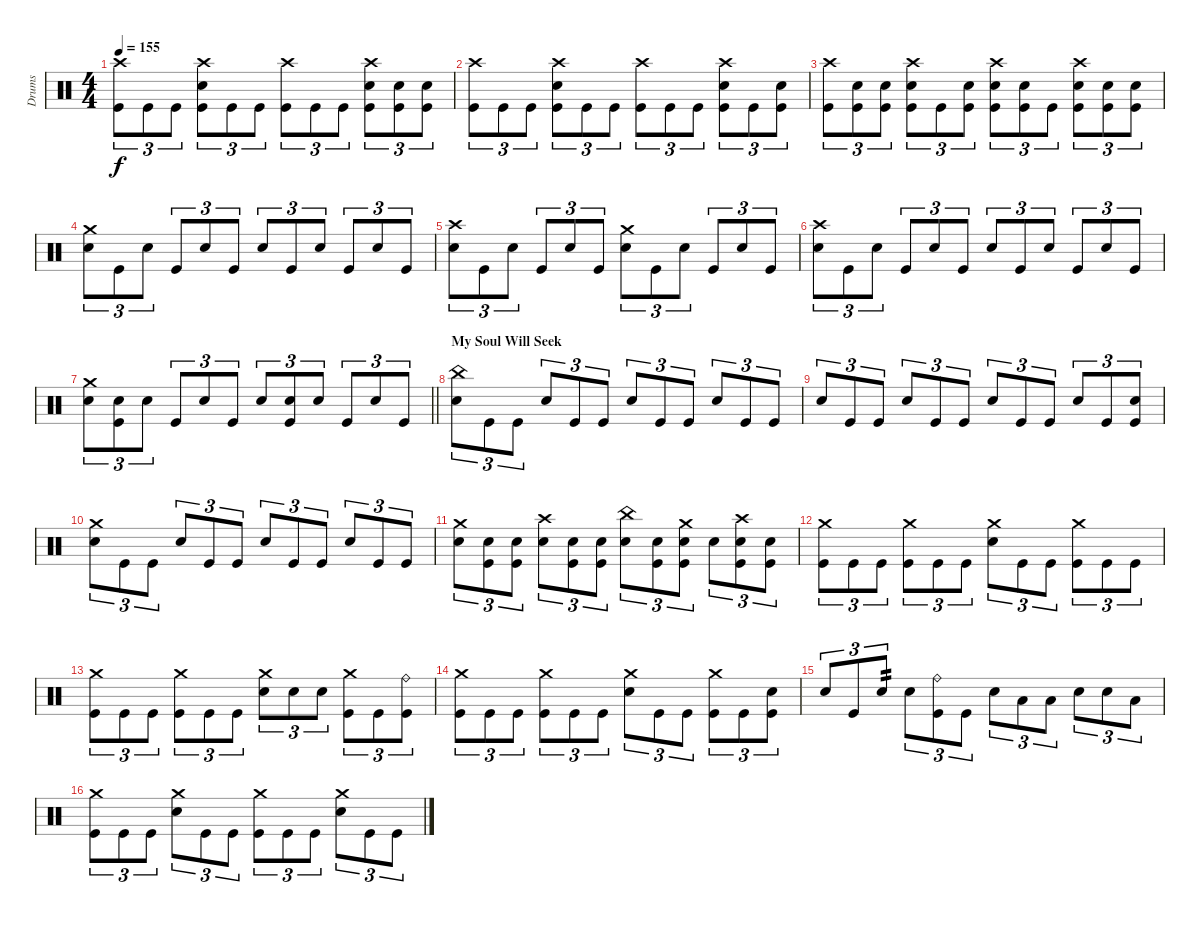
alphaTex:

\track ("Drums" "Drums") {instrument percussion}
\staff {score}
\articulation defaults
\ts (4 4)
\tempo 155
\clef neutral
\ks c
("Crash high (hit)" "Kick (hit)").8{tu (3 2) dy f} "Kick (hit)".8{tu (3 2)} "Kick (hit)".8{tu (3 2)} ("Crash high (hit)" "Electric Snare (hit)" "Kick (hit)").8{tu (3 2)} "Kick (hit)".8{tu (3 2)} "Kick (hit)".8{tu (3 2)} ("Crash high (hit)" "Kick (hit)").8{tu (3 2)} "Kick (hit)".8{tu (3 2)} "Kick (hit)".8{tu (3 2)} ("Crash high (hit)" "Electric Snare (hit)" "Kick (hit)").8{tu (3 2)} ("Electric Snare (hit)" "Kick (hit)").8{tu (3 2)} ("Electric Snare (hit)" "Kick (hit)").8{tu (3 2)} |
("Crash high (hit)" "Kick (hit)").8{tu (3 2)} "Kick (hit)".8{tu (3 2)} "Kick (hit)".8{tu (3 2)} ("Crash high (hit)" "Electric Snare (hit)" "Kick (hit)").8{tu (3 2)} "Kick (hit)".8{tu (3 2)} "Kick (hit)".8{tu (3 2)} ("Crash high (hit)" "Kick (hit)").8{tu (3 2)} "Kick (hit)".8{tu (3 2)} "Kick (hit)".8{tu (3 2)} ("Crash high (hit)" "Electric Snare (hit)" "Kick (hit)").8{tu (3 2)} "Kick (hit)".8{tu (3 2)} ("Electric Snare (hit)" "Kick (hit)").8{tu (3 2)} |
("Crash high (hit)" "Kick (hit)").8{tu (3 2)} ("Electric Snare (hit)" "Kick (hit)").8{tu (3 2)} ("Electric Snare (hit)" "Kick (hit)").8{tu (3 2)} ("Crash high (hit)" "Electric Snare (hit)" "Kick (hit)").8{tu (3 2)} "Kick (hit)".8{tu (3 2)} ("Electric Snare (hit)" "Kick (hit)").8{tu (3 2)} ("Crash high (hit)" "Electric Snare (hit)" "Kick (hit)").8{tu (3 2)} ("Electric Snare (hit)" "Kick (hit)").8{tu (3 2)} "Kick (hit)".8{tu (3 2)} ("Crash high (hit)" "Electric Snare (hit)" "Kick (hit)").8{tu (3 2)} ("Electric Snare (hit)" "Kick (hit)").8{tu (3 2)} ("Electric Snare (hit)" "Kick (hit)").8{tu (3 2)} |
("Crash medium (hit)" "Electric Snare (hit)").8{tu (3 2)} "Kick (hit)".8{tu (3 2)} "Electric Snare (hit)".8{tu (3 2)} "Kick (hit)".8{tu (3 2)} "Electric Snare (hit)".8{tu (3 2)} "Kick (hit)".8{tu (3 2)} "Electric Snare (hit)".8{tu (3 2)} "Kick (hit)".8{tu (3 2)} "Electric Snare (hit)".8{tu (3 2)} "Kick (hit)".8{tu (3 2)} "Electric Snare (hit)".8{tu (3 2)} "Kick (hit)".8{tu (3 2)} |
("Crash high (hit)" "Electric Snare (hit)").8{tu (3 2)} "Kick (hit)".8{tu (3 2)} "Electric Snare (hit)".8{tu (3 2)} "Kick (hit)".8{tu (3 2)} "Electric Snare (hit)".8{tu (3 2)} "Kick (hit)".8{tu (3 2)} ("Crash medium (hit)" "Electric Snare (hit)").8{tu (3 2)} "Kick (hit)".8{tu (3 2)} "Electric Snare (hit)".8{tu (3 2)} "Kick (hit)".8{tu (3 2)} "Electric Snare (hit)".8{tu (3 2)} "Kick (hit)".8{tu (3 2)} |
("Crash high (hit)" "Electric Snare (hit)").8{tu (3 2)} "Kick (hit)".8{tu (3 2)} "Electric Snare (hit)".8{tu (3 2)} "Kick (hit)".8{tu (3 2)} "Electric Snare (hit)".8{tu (3 2)} "Kick (hit)".8{tu (3 2)} "Electric Snare (hit)".8{tu (3 2)} "Kick (hit)".8{tu (3 2)} "Electric Snare (hit)".8{tu (3 2)} "Kick (hit)".8{tu (3 2)} "Electric Snare (hit)".8{tu (3 2)} "Kick (hit)".8{tu (3 2)} |
\barLineRight lightlight
("Crash medium (hit)" "Electric Snare (hit)").8{tu (3 2)} ("Electric Snare (hit)" "Kick (hit)").8{tu (3 2)} "Electric Snare (hit)".8{tu (3 2)} "Kick (hit)".8{tu (3 2)} "Electric Snare (hit)".8{tu (3 2)} "Kick (hit)".8{tu (3 2)} "Electric Snare (hit)".8{tu (3 2)} ("Electric Snare (hit)" "Kick (hit)").8{tu (3 2)} "Electric Snare (hit)".8{tu (3 2)} "Kick (hit)".8{tu (3 2)} "Electric Snare (hit)".8{tu (3 2)} "Kick (hit)".8{tu (3 2)} |
\section ("" "My Soul Will Seek")
("China (hit)" "Electric Snare (hit)").8{tu (3 2)} "Kick (hit)".8{tu (3 2)} "Kick (hit)".8{tu (3 2)} "Electric Snare (hit)".8{tu (3 2)} "Kick (hit)".8{tu (3 2)} "Kick (hit)".8{tu (3 2)} "Electric Snare (hit)".8{tu (3 2)} "Kick (hit)".8{tu (3 2)} "Kick (hit)".8{tu (3 2)} "Electric Snare (hit)".8{tu (3 2)} "Kick (hit)".8{tu (3 2)} "Kick (hit)".8{tu (3 2)} |
"Electric Snare (hit)".8{tu (3 2)} "Kick (hit)".8{tu (3 2)} "Kick (hit)".8{tu (3 2)} "Electric Snare (hit)".8{tu (3 2)} "Kick (hit)".8{tu (3 2)} "Kick (hit)".8{tu (3 2)} "Electric Snare (hit)".8{tu (3 2)} "Kick (hit)".8{tu (3 2)} "Kick (hit)".8{tu (3 2)} "Electric Snare (hit)".8{tu (3 2)} "Kick (hit)".8{tu (3 2)} ("Electric Snare (hit)" "Kick (hit)").8{tu (3 2)} |
("Crash medium (hit)" "Electric Snare (hit)").8{tu (3 2)} "Kick (hit)".8{tu (3 2)} "Kick (hit)".8{tu (3 2)} "Electric Snare (hit)".8{tu (3 2)} "Kick (hit)".8{tu (3 2)} "Kick (hit)".8{tu (3 2)} "Electric Snare (hit)".8{tu (3 2)} "Kick (hit)".8{tu (3 2)} "Kick (hit)".8{tu (3 2)} "Electric Snare (hit)".8{tu (3 2)} "Kick (hit)".8{tu (3 2)} "Kick (hit)".8{tu (3 2)} |
("Crash medium (hit)" "Electric Snare (hit)").8{tu (3 2)} ("Electric Snare (hit)" "Kick (hit)").8{tu (3 2)} ("Electric Snare (hit)" "Kick (hit)").8{tu (3 2)} ("Crash high (hit)" "Electric Snare (hit)").8{tu (3 2)} ("Electric Snare (hit)" "Kick (hit)").8{tu (3 2)} ("Electric Snare (hit)" "Kick (hit)").8{tu (3 2)} ("China (hit)" "Electric Snare (hit)").8{tu (3 2)} ("Electric Snare (hit)" "Kick (hit)").8{tu (3 2)} ("Crash medium (hit)" "Electric Snare (hit)" "Kick (hit)").8{tu (3 2)} "Electric Snare (hit)".8{tu (3 2)} ("Crash high (hit)" "Electric Snare (hit)" "Kick (hit)").8{tu (3 2)} ("Electric Snare (hit)" "Kick (hit)").8{tu (3 2)} |
("Crash medium (hit)" "Kick (hit)").8{tu (3 2)} "Kick (hit)".8{tu (3 2)} "Kick (hit)".8{tu (3 2)} ("Crash medium (hit)" "Kick (hit)").8{tu (3 2)} "Kick (hit)".8{tu (3 2)} "Kick (hit)".8{tu (3 2)} ("Crash medium (hit)" "Electric Snare (hit)").8{tu (3 2)} "Kick (hit)".8{tu (3 2)} "Kick (hit)".8{tu (3 2)} ("Crash medium (hit)" "Kick (hit)").8{tu (3 2)} "Kick (hit)".8{tu (3 2)} "Kick (hit)".8{tu (3 2)} |
("Crash medium (hit)" "Kick (hit)").8{tu (3 2)} "Kick (hit)".8{tu (3 2)} "Kick (hit)".8{tu (3 2)} ("Crash medium (hit)" "Kick (hit)").8{tu (3 2)} "Kick (hit)".8{tu (3 2)} "Kick (hit)".8{tu (3 2)} ("Crash medium (hit)" "Electric Snare (hit)").8{tu (3 2)} "Electric Snare (hit)".8{tu (3 2)} "Electric Snare (hit)".8{tu (3 2)} ("Crash medium (hit)" "Kick (hit)").8{tu (3 2)} "Kick (hit)".8{tu (3 2)} ("Ride (bell)" "Kick (hit)").8{tu (3 2)} |
("Crash medium (hit)" "Kick (hit)").8{tu (3 2)} "Kick (hit)".8{tu (3 2)} "Kick (hit)".8{tu (3 2)} ("Crash medium (hit)" "Kick (hit)").8{tu (3 2)} "Kick (hit)".8{tu (3 2)} "Kick (hit)".8{tu (3 2)} ("Crash medium (hit)" "Electric Snare (hit)").8{tu (3 2)} "Kick (hit)".8{tu (3 2)} "Kick (hit)".8{tu (3 2)} ("Crash medium (hit)" "Kick (hit)").8{tu (3 2)} "Kick (hit)".8{tu (3 2)} ("Electric Snare (hit)" "Kick (hit)").8{tu (3 2)} |
"Electric Snare (hit)".8{tu (3 2)} "Kick (hit)".8{tu (3 2)} "Electric Snare (hit)".8{tu (3 2) tp 2} "Electric Snare (hit)".8{tu (3 2)} ("Ride (bell)" "Kick (hit)").8{tu (3 2)} "Kick (hit)".8{tu (3 2)} "Electric Snare (hit)".8{tu (3 2)} "Low Tom (hit)".8{tu (3 2)} "Low Tom (hit)".8{tu (3 2)} "Electric Snare (hit)".8{tu (3 2)} "Electric Snare (hit)".8{tu (3 2)} "Low Tom (hit)".8{tu (3 2)} |
("Crash medium (hit)" "Kick (hit)").8{tu (3 2)} "Kick (hit)".8{tu (3 2)} "Kick (hit)".8{tu (3 2)} ("Crash medium (hit)" "Electric Snare (hit)").8{tu (3 2)} "Kick (hit)".8{tu (3 2)} "Kick (hit)".8{tu (3 2)} ("Crash medium (hit)" "Kick (hit)").8{tu (3 2)} "Kick (hit)".8{tu (3 2)} "Kick (hit)".8{tu (3 2)} ("Crash medium (hit)" "Electric Snare (hit)").8{tu (3 2)} "Kick (hit)".8{tu (3 2)} "Kick (hit)".8{tu (3 2)}
